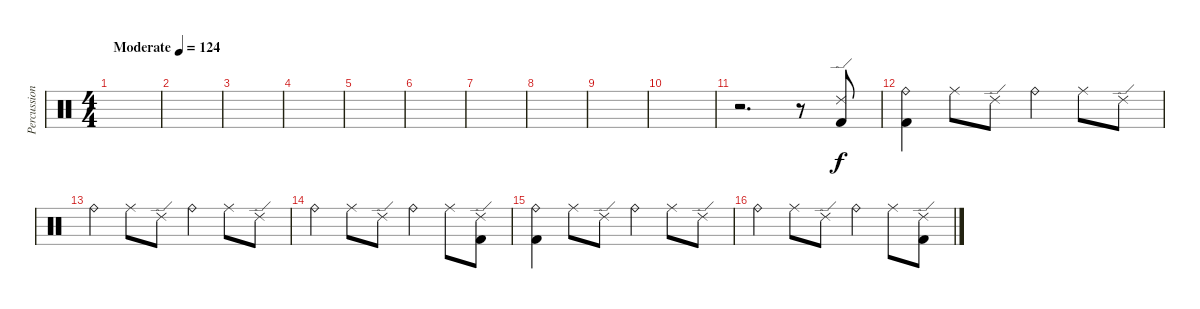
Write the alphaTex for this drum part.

\track ("Percussion" "Percussion") {instrument percussion}
\staff {score}
\articulation defaults
\ts (4 4)
\tempo (124 "Moderate")
\clef neutral
\ks c
|
|
|
|
|
|
|
|
|
|
r.2{d} r.8 ("Ride (edge) 2" "Kick (hit) 2").8 |
("Ride (bell)" "Kick (hit) 2").4 "Ride (middle)".8 "Ride (edge) 2".8 "Ride (bell)".4 "Ride (middle)".8 "Ride (edge) 2".8 |
"Ride (bell)".4 "Ride (middle)".8 "Ride (edge) 2".8 "Ride (bell)".4 "Ride (middle)".8 "Ride (edge) 2".8 |
"Ride (bell)".4 "Ride (middle)".8 "Ride (edge) 2".8 "Ride (bell)".4 "Ride (middle)".8 ("Ride (edge) 2" "Kick (hit) 2").8 |
("Ride (bell)" "Kick (hit) 2").4 "Ride (middle)".8 "Ride (edge) 2".8 "Ride (bell)".4 "Ride (middle)".8 "Ride (edge) 2".8 |
"Ride (bell)".4 "Ride (middle)".8 "Ride (edge) 2".8 "Ride (bell)".4 "Ride (middle)".8 ("Ride (edge) 2" "Kick (hit) 2").8
